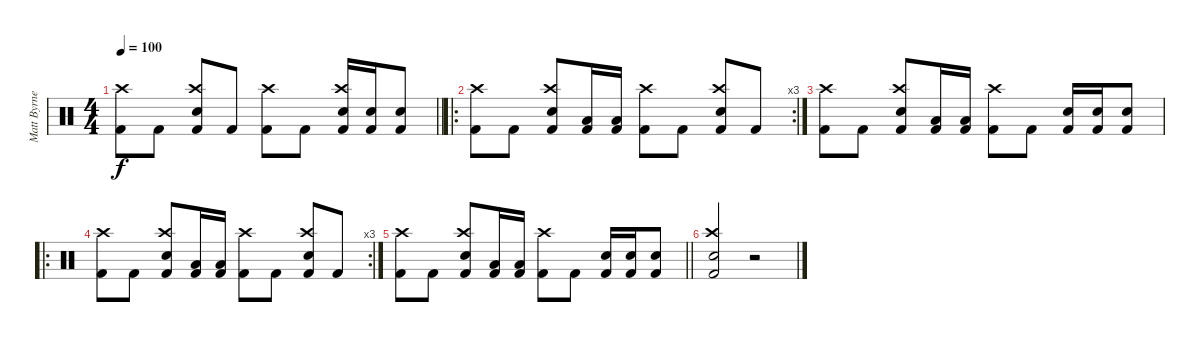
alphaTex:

\track ("Matt Byrne" "Matt Byrne") {instrument percussion}
\staff {score}
\articulation defaults
\ts (4 4)
\tempo 100
\clef neutral
\barLineRight lightlight
\ks c
("Kick (hit) 2" "Crash high (hit)").8{dy f} "Kick (hit) 2".8 ("Crash high (hit)" "Electric Snare (hit)" "Kick (hit) 2").8 "Kick (hit) 2".8 ("Kick (hit) 2" "Crash high (hit)").8 "Kick (hit) 2".8 ("Crash high (hit)" "Electric Snare (hit)" "Kick (hit) 2").16 ("Electric Snare (hit)" "Kick (hit) 2").16 ("Electric Snare (hit)" "Kick (hit) 2").8 |
\ro
\rc 3
("Kick (hit) 2" "Crash high (hit)").8 "Kick (hit) 2".8 ("Crash high (hit)" "Electric Snare (hit)" "Kick (hit) 2").8 ("Low Floor Tom (hit)" "Kick (hit) 2").16 ("Low Floor Tom (hit)" "Kick (hit) 2").16 ("Kick (hit) 2" "Crash high (hit)").8 "Kick (hit) 2".8 ("Crash high (hit)" "Electric Snare (hit)" "Kick (hit) 2").8 "Kick (hit) 2".8 |
("Kick (hit) 2" "Crash high (hit)").8 "Kick (hit) 2".8 ("Crash high (hit)" "Electric Snare (hit)" "Kick (hit) 2").8 ("Low Floor Tom (hit)" "Kick (hit) 2").16 ("Low Floor Tom (hit)" "Kick (hit) 2").16 ("Kick (hit) 2" "Crash high (hit)").8 "Kick (hit) 2".8 ("Electric Snare (hit)" "Kick (hit) 2").16 ("Electric Snare (hit)" "Kick (hit) 2").16 ("Electric Snare (hit)" "Kick (hit) 2").8 |
\ro
\rc 3
("Kick (hit) 2" "Crash high (hit)").8 "Kick (hit) 2".8 ("Crash high (hit)" "Electric Snare (hit)" "Kick (hit) 2").8 ("Low Floor Tom (hit)" "Kick (hit) 2").16 ("Low Floor Tom (hit)" "Kick (hit) 2").16 ("Kick (hit) 2" "Crash high (hit)").8 "Kick (hit) 2".8 ("Crash high (hit)" "Electric Snare (hit)" "Kick (hit) 2").8 "Kick (hit) 2".8 |
\barLineRight lightlight
("Kick (hit) 2" "Crash high (hit)").8 "Kick (hit) 2".8 ("Crash high (hit)" "Electric Snare (hit)" "Kick (hit) 2").8 ("Low Floor Tom (hit)" "Kick (hit) 2").16 ("Low Floor Tom (hit)" "Kick (hit) 2").16 ("Kick (hit) 2" "Crash high (hit)").8 "Kick (hit) 2".8 ("Electric Snare (hit)" "Kick (hit) 2").16 ("Electric Snare (hit)" "Kick (hit) 2").16 ("Electric Snare (hit)" "Kick (hit) 2").8 |
("Crash high (hit)" "Kick (hit) 2" "Electric Snare (hit)").2 r.2
